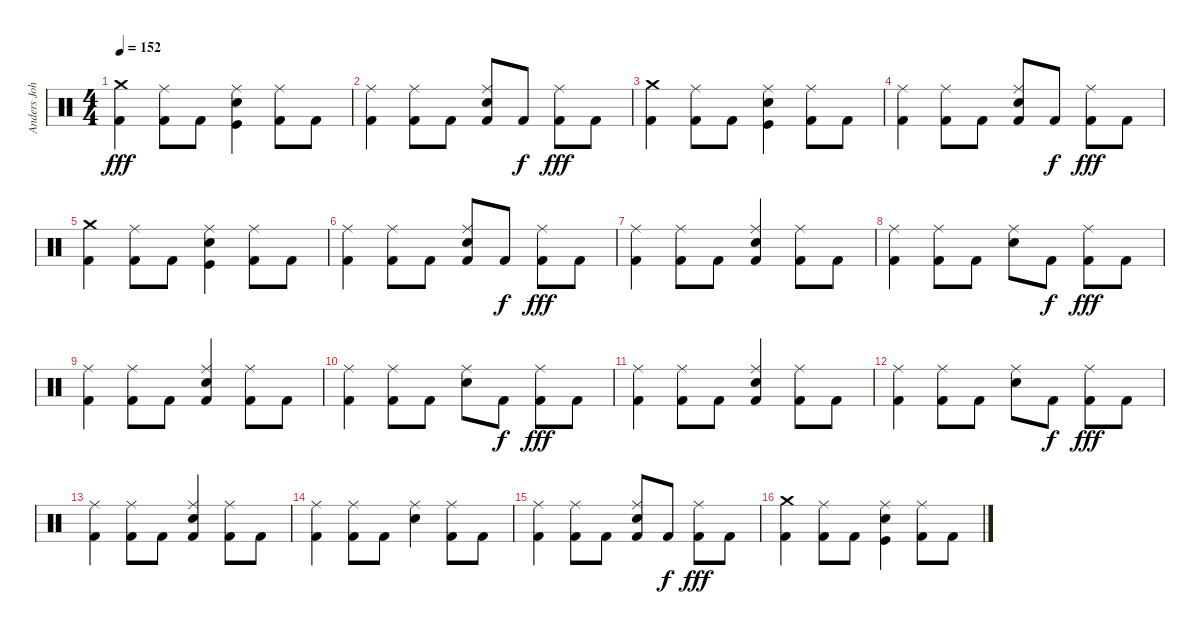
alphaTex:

\track ("Anders Johansson (Drums)" "Anders Joh") {instrument percussion}
\staff {score}
\articulation defaults
\ts (4 4)
\tempo 152
\clef neutral
\ks c
("Kick (hit) 2" "Crash medium (hit)").4{dy fff} ("Kick (hit) 2" "Ride (middle)").8 "Kick (hit) 2".8 ("Kick (hit)" "Electric Snare (hit)" "Ride (middle)").4 ("Kick (hit) 2" "Ride (middle)").8 "Kick (hit) 2".8 |
("Kick (hit) 2" "Ride (middle)").4 ("Kick (hit) 2" "Ride (middle)").8 "Kick (hit) 2".8 ("Kick (hit) 2" "Electric Snare (hit)" "Ride (middle)").8 "Kick (hit) 2".8{dy f} ("Kick (hit) 2" "Ride (middle)").8{dy fff} "Kick (hit) 2".8 |
("Kick (hit) 2" "Crash medium (hit)").4 ("Kick (hit) 2" "Ride (middle)").8 "Kick (hit) 2".8 ("Kick (hit)" "Electric Snare (hit)" "Ride (middle)").4 ("Kick (hit) 2" "Ride (middle)").8 "Kick (hit) 2".8 |
("Kick (hit) 2" "Ride (middle)").4 ("Kick (hit) 2" "Ride (middle)").8 "Kick (hit) 2".8 ("Kick (hit) 2" "Electric Snare (hit)" "Ride (middle)").8 "Kick (hit) 2".8{dy f} ("Kick (hit) 2" "Ride (middle)").8{dy fff} "Kick (hit) 2".8 |
("Kick (hit) 2" "Crash medium (hit)").4 ("Kick (hit) 2" "Ride (middle)").8 "Kick (hit) 2".8 ("Kick (hit)" "Electric Snare (hit)" "Ride (middle)").4 ("Kick (hit) 2" "Ride (middle)").8 "Kick (hit) 2".8 |
("Kick (hit) 2" "Ride (middle)").4 ("Kick (hit) 2" "Ride (middle)").8 "Kick (hit) 2".8 ("Kick (hit) 2" "Electric Snare (hit)" "Ride (middle)").8 "Kick (hit) 2".8{dy f} ("Kick (hit) 2" "Ride (middle)").8{dy fff} "Kick (hit) 2".8 |
("Kick (hit) 2" "Ride (middle)").4 ("Kick (hit) 2" "Ride (middle)").8 "Kick (hit) 2".8 ("Kick (hit) 2" "Electric Snare (hit)" "Ride (middle)").4 ("Kick (hit) 2" "Ride (middle)").8 "Kick (hit) 2".8 |
("Kick (hit) 2" "Ride (middle)").4 ("Kick (hit) 2" "Ride (middle)").8 "Kick (hit) 2".8 ("Electric Snare (hit)" "Ride (middle)").8 "Kick (hit) 2".8{dy f} ("Kick (hit) 2" "Ride (middle)").8{dy fff} "Kick (hit) 2".8 |
("Kick (hit) 2" "Ride (middle)").4 ("Kick (hit) 2" "Ride (middle)").8 "Kick (hit) 2".8 ("Kick (hit) 2" "Electric Snare (hit)" "Ride (middle)").4 ("Kick (hit) 2" "Ride (middle)").8 "Kick (hit) 2".8 |
("Kick (hit) 2" "Ride (middle)").4 ("Kick (hit) 2" "Ride (middle)").8 "Kick (hit) 2".8 ("Electric Snare (hit)" "Ride (middle)").8 "Kick (hit) 2".8{dy f} ("Kick (hit) 2" "Ride (middle)").8{dy fff} "Kick (hit) 2".8 |
("Kick (hit) 2" "Ride (middle)").4 ("Kick (hit) 2" "Ride (middle)").8 "Kick (hit) 2".8 ("Kick (hit) 2" "Electric Snare (hit)" "Ride (middle)").4 ("Kick (hit) 2" "Ride (middle)").8 "Kick (hit) 2".8 |
("Kick (hit) 2" "Ride (middle)").4 ("Kick (hit) 2" "Ride (middle)").8 "Kick (hit) 2".8 ("Electric Snare (hit)" "Ride (middle)").8 "Kick (hit) 2".8{dy f} ("Kick (hit) 2" "Ride (middle)").8{dy fff} "Kick (hit) 2".8 |
("Kick (hit) 2" "Ride (middle)").4 ("Kick (hit) 2" "Ride (middle)").8 "Kick (hit) 2".8 ("Kick (hit) 2" "Electric Snare (hit)" "Ride (middle)").4 ("Kick (hit) 2" "Ride (middle)").8 "Kick (hit) 2".8 |
("Kick (hit) 2" "Ride (middle)").4 ("Kick (hit) 2" "Ride (middle)").8 "Kick (hit) 2".8 ("Electric Snare (hit)" "Ride (middle)").4 ("Kick (hit) 2" "Ride (middle)").8 "Kick (hit) 2".8 |
("Kick (hit) 2" "Ride (middle)").4 ("Kick (hit) 2" "Ride (middle)").8 "Kick (hit) 2".8 ("Kick (hit) 2" "Electric Snare (hit)" "Ride (middle)").8 "Kick (hit) 2".8{dy f} ("Kick (hit) 2" "Ride (middle)").8{dy fff} "Kick (hit) 2".8 |
("Kick (hit) 2" "Crash medium (hit)").4 ("Kick (hit) 2" "Ride (middle)").8 "Kick (hit) 2".8 ("Kick (hit)" "Electric Snare (hit)" "Ride (middle)").4 ("Kick (hit) 2" "Ride (middle)").8 "Kick (hit) 2".8
